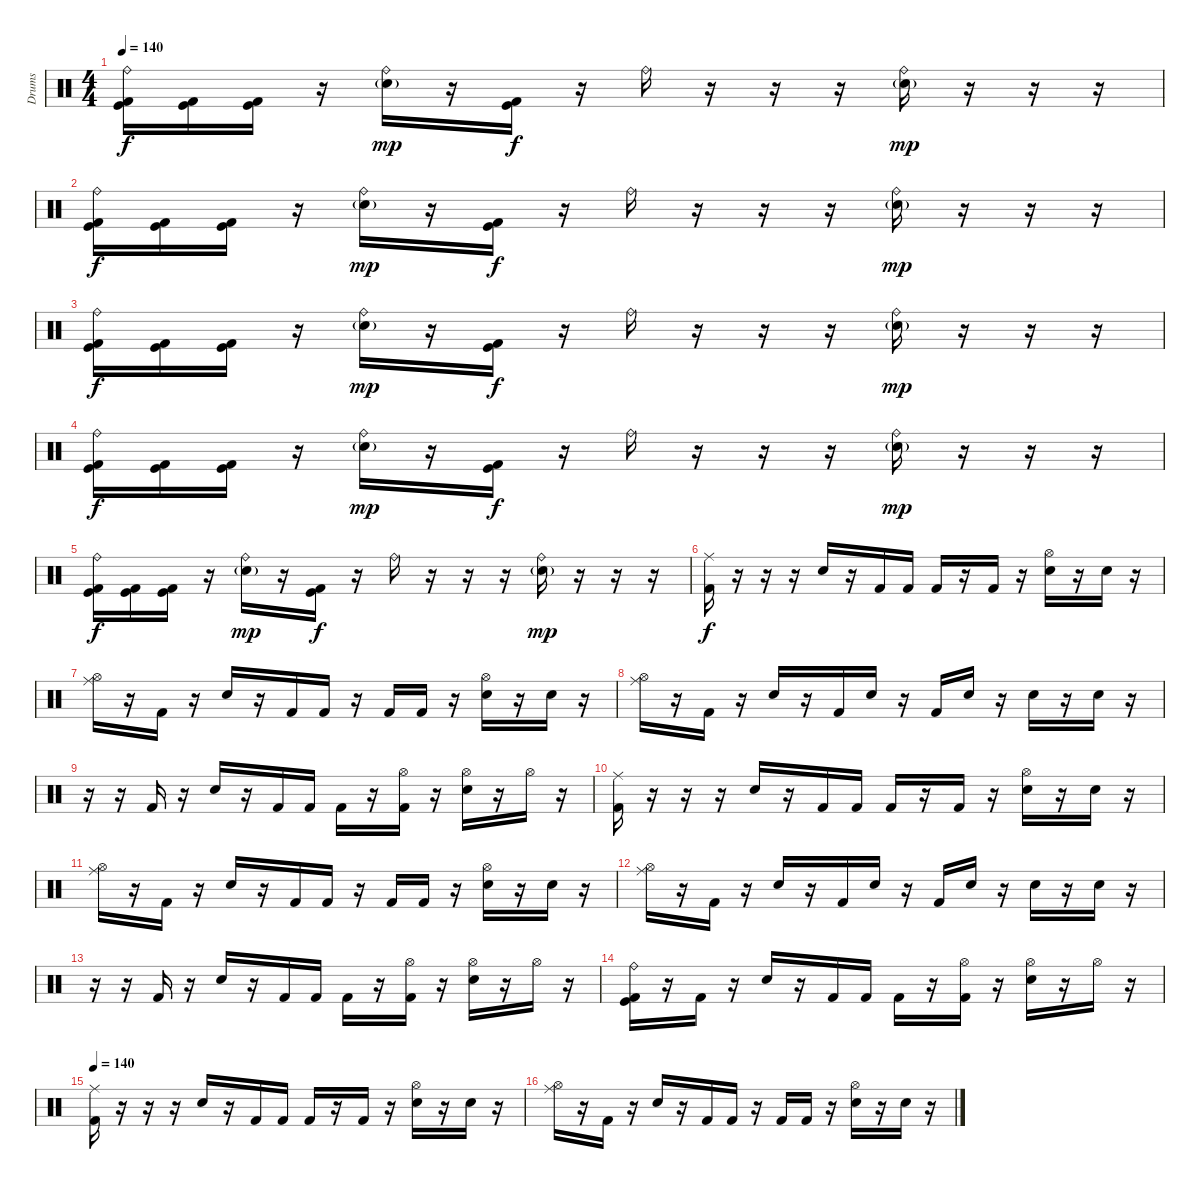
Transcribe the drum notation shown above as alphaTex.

\track ("Drums" "Drums") {instrument percussion}
\staff {score}
\articulation defaults
\ts (4 4)
\tempo 140
\clef neutral
\ks c
("Ride (bell)" "Kick (hit)" "Kick (hit) 2").16{dy f} ("Kick (hit)" "Kick (hit) 2").16 ("Kick (hit)" "Kick (hit) 2").16 r.16 ("Ride (bell)" "Electric Snare (hit)"{g}).16{dy mp} r.16 ("Kick (hit)" "Kick (hit) 2").16{dy f} r.16 "Ride (bell)".16 r.16 r.16 r.16 ("Ride (bell)" "Electric Snare (hit)"{g}).16{dy mp} r.16 r.16 r.16 |
("Ride (bell)" "Kick (hit)" "Kick (hit) 2").16{dy f} ("Kick (hit)" "Kick (hit) 2").16 ("Kick (hit)" "Kick (hit) 2").16 r.16 ("Ride (bell)" "Electric Snare (hit)"{g}).16{dy mp} r.16 ("Kick (hit)" "Kick (hit) 2").16{dy f} r.16 "Ride (bell)".16 r.16 r.16 r.16 ("Ride (bell)" "Electric Snare (hit)"{g}).16{dy mp} r.16 r.16 r.16 |
("Ride (bell)" "Kick (hit)" "Kick (hit) 2").16{dy f} ("Kick (hit)" "Kick (hit) 2").16 ("Kick (hit)" "Kick (hit) 2").16 r.16 ("Ride (bell)" "Electric Snare (hit)"{g}).16{dy mp} r.16 ("Kick (hit)" "Kick (hit) 2").16{dy f} r.16 "Ride (bell)".16 r.16 r.16 r.16 ("Ride (bell)" "Electric Snare (hit)"{g}).16{dy mp} r.16 r.16 r.16 |
("Ride (bell)" "Kick (hit)" "Kick (hit) 2").16{dy f} ("Kick (hit)" "Kick (hit) 2").16 ("Kick (hit)" "Kick (hit) 2").16 r.16 ("Ride (bell)" "Electric Snare (hit)"{g}).16{dy mp} r.16 ("Kick (hit)" "Kick (hit) 2").16{dy f} r.16 "Ride (bell)".16 r.16 r.16 r.16 ("Ride (bell)" "Electric Snare (hit)"{g}).16{dy mp} r.16 r.16 r.16 |
("Ride (bell)" "Kick (hit)" "Kick (hit) 2").16{dy f} ("Kick (hit)" "Kick (hit) 2").16 ("Kick (hit)" "Kick (hit) 2").16 r.16 ("Ride (bell)" "Electric Snare (hit)"{g}).16{dy mp} r.16 ("Kick (hit)" "Kick (hit) 2").16{dy f} r.16 "Ride (bell)".16 r.16 r.16 r.16 ("Ride (bell)" "Electric Snare (hit)"{g}).16{dy mp} r.16 r.16 r.16 |
("Ride (middle)" "Kick (hit) 2").16{dy f} r.16 r.16 r.16 "Electric Snare (hit)".16 r.16 "Kick (hit) 2".16 "Kick (hit) 2".16 "Kick (hit) 2".16 r.16 "Kick (hit) 2".16 r.16 ("Hi-Hat (open)" "Electric Snare (hit)").16 r.16 "Electric Snare (hit)".16 r.16 |
("Ride (middle)" "Hi-Hat (open)").16 r.16 "Kick (hit) 2".16 r.16 "Electric Snare (hit)".16 r.16 "Kick (hit) 2".16 "Kick (hit) 2".16 r.16 "Kick (hit) 2".16 "Kick (hit) 2".16 r.16 ("Hi-Hat (open)" "Electric Snare (hit)").16 r.16 "Electric Snare (hit)".16 r.16 |
("Ride (middle)" "Hi-Hat (open)").16 r.16 "Kick (hit) 2".16 r.16 "Electric Snare (hit)".16 r.16 "Kick (hit) 2".16 "Electric Snare (hit)".16 r.16 "Kick (hit) 2".16 "Electric Snare (hit)".16 r.16 "Electric Snare (hit)".16 r.16 "Electric Snare (hit)".16 r.16 |
r.16 r.16 "Kick (hit) 2".16 r.16 "Electric Snare (hit)".16 r.16 "Kick (hit) 2".16 "Kick (hit) 2".16 "Kick (hit) 2".16 r.16 ("Hi-Hat (open)" "Kick (hit) 2").16 r.16 ("Hi-Hat (open)" "Electric Snare (hit)").16 r.16 "Hi-Hat (open)".16 r.16 |
("Ride (middle)" "Kick (hit) 2").16 r.16 r.16 r.16 "Electric Snare (hit)".16 r.16 "Kick (hit) 2".16 "Kick (hit) 2".16 "Kick (hit) 2".16 r.16 "Kick (hit) 2".16 r.16 ("Hi-Hat (open)" "Electric Snare (hit)").16 r.16 "Electric Snare (hit)".16 r.16 |
("Ride (middle)" "Hi-Hat (open)").16 r.16 "Kick (hit) 2".16 r.16 "Electric Snare (hit)".16 r.16 "Kick (hit) 2".16 "Kick (hit) 2".16 r.16 "Kick (hit) 2".16 "Kick (hit) 2".16 r.16 ("Hi-Hat (open)" "Electric Snare (hit)").16 r.16 "Electric Snare (hit)".16 r.16 |
("Ride (middle)" "Hi-Hat (open)").16 r.16 "Kick (hit) 2".16 r.16 "Electric Snare (hit)".16 r.16 "Kick (hit) 2".16 "Electric Snare (hit)".16 r.16 "Kick (hit) 2".16 "Electric Snare (hit)".16 r.16 "Electric Snare (hit)".16 r.16 "Electric Snare (hit)".16 r.16 |
r.16 r.16 "Kick (hit) 2".16 r.16 "Electric Snare (hit)".16 r.16 "Kick (hit) 2".16 "Kick (hit) 2".16 "Kick (hit) 2".16 r.16 ("Hi-Hat (open)" "Kick (hit) 2").16 r.16 ("Hi-Hat (open)" "Electric Snare (hit)").16 r.16 "Hi-Hat (open)".16 r.16 |
("Ride (bell)" "Kick (hit)" "Kick (hit) 2").16 r.16 "Kick (hit) 2".16 r.16 "Electric Snare (hit)".16 r.16 "Kick (hit) 2".16 "Kick (hit) 2".16 "Kick (hit) 2".16 r.16 ("Hi-Hat (open)" "Kick (hit) 2").16 r.16 ("Hi-Hat (open)" "Electric Snare (hit)").16 r.16 "Hi-Hat (open)".16 r.16 |
\tempo 140
("Ride (middle)" "Kick (hit) 2").16 r.16 r.16 r.16 "Electric Snare (hit)".16 r.16 "Kick (hit) 2".16 "Kick (hit) 2".16 "Kick (hit) 2".16 r.16 "Kick (hit) 2".16 r.16 ("Hi-Hat (open)" "Electric Snare (hit)").16 r.16 "Electric Snare (hit)".16 r.16 |
("Ride (middle)" "Hi-Hat (open)").16 r.16 "Kick (hit) 2".16 r.16 "Electric Snare (hit)".16 r.16 "Kick (hit) 2".16 "Kick (hit) 2".16 r.16 "Kick (hit) 2".16 "Kick (hit) 2".16 r.16 ("Hi-Hat (open)" "Electric Snare (hit)").16 r.16 "Electric Snare (hit)".16 r.16
